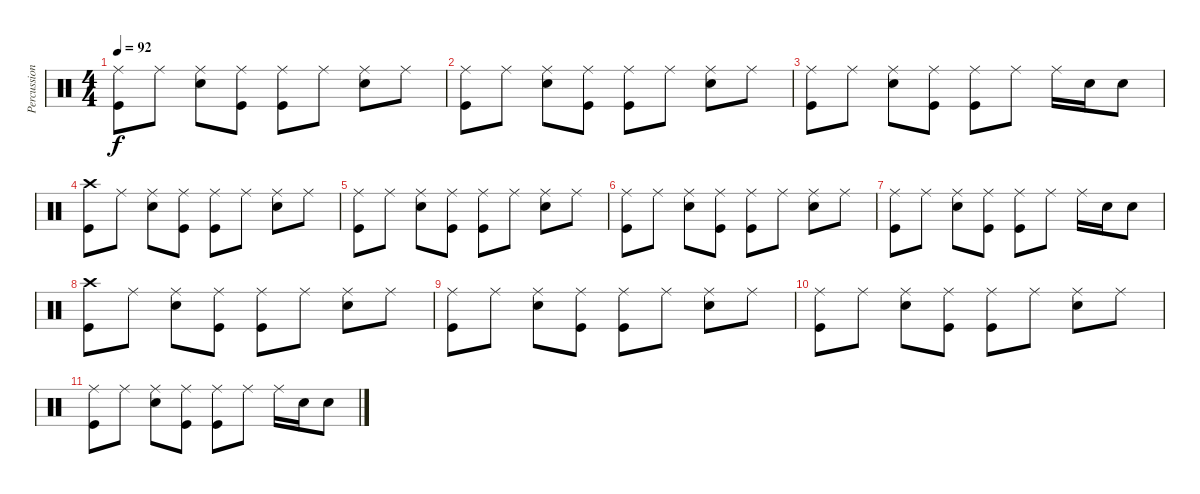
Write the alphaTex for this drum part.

\track ("Percussion" "Percussion") {instrument percussion}
\staff {score}
\articulation defaults
\ts (4 4)
\tempo 92
\clef neutral
\ks c
("Ride (middle)" "Kick (hit)").8{dy f} "Ride (middle)".8 ("Ride (middle)" "Snare (hit) 2").8 ("Ride (middle)" "Kick (hit)").8 ("Ride (middle)" "Kick (hit)").8 "Ride (middle)".8 ("Ride (middle)" "Snare (hit) 2").8 "Ride (middle)".8 |
("Ride (middle)" "Kick (hit)").8 "Ride (middle)".8 ("Ride (middle)" "Snare (hit) 2").8 ("Ride (middle)" "Kick (hit)").8 ("Ride (middle)" "Kick (hit)").8 "Ride (middle)".8 ("Ride (middle)" "Snare (hit) 2").8 "Ride (middle)".8 |
("Ride (middle)" "Kick (hit)").8 "Ride (middle)".8 ("Ride (middle)" "Snare (hit) 2").8 ("Ride (middle)" "Kick (hit)").8 ("Ride (middle)" "Kick (hit)").8 "Ride (middle)".8 "Ride (middle)".16 "Snare (hit) 2".16 "Snare (hit) 2".8 |
("Crash high (hit)" "Kick (hit)").8{volume 5} "Ride (middle)".8 ("Ride (middle)" "Snare (hit) 2").8 ("Ride (middle)" "Kick (hit)").8 ("Ride (middle)" "Kick (hit)").8 "Ride (middle)".8 ("Ride (middle)" "Snare (hit) 2").8 "Ride (middle)".8 |
("Ride (middle)" "Kick (hit)").8 "Ride (middle)".8 ("Ride (middle)" "Snare (hit) 2").8 ("Ride (middle)" "Kick (hit)").8 ("Ride (middle)" "Kick (hit)").8 "Ride (middle)".8 ("Ride (middle)" "Snare (hit) 2").8 "Ride (middle)".8 |
("Ride (middle)" "Kick (hit)").8 "Ride (middle)".8 ("Ride (middle)" "Snare (hit) 2").8 ("Ride (middle)" "Kick (hit)").8 ("Ride (middle)" "Kick (hit)").8 "Ride (middle)".8 ("Ride (middle)" "Snare (hit) 2").8 "Ride (middle)".8 |
("Ride (middle)" "Kick (hit)").8 "Ride (middle)".8 ("Ride (middle)" "Snare (hit) 2").8 ("Ride (middle)" "Kick (hit)").8 ("Ride (middle)" "Kick (hit)").8 "Ride (middle)".8 "Ride (middle)".16 "Snare (hit) 2".16 "Snare (hit) 2".8 |
("Crash high (hit)" "Kick (hit)").8{volume 1} "Ride (middle)".8 ("Ride (middle)" "Snare (hit) 2").8 ("Ride (middle)" "Kick (hit)").8 ("Ride (middle)" "Kick (hit)").8 "Ride (middle)".8 ("Ride (middle)" "Snare (hit) 2").8 "Ride (middle)".8 |
("Ride (middle)" "Kick (hit)").8 "Ride (middle)".8 ("Ride (middle)" "Snare (hit) 2").8 ("Ride (middle)" "Kick (hit)").8 ("Ride (middle)" "Kick (hit)").8 "Ride (middle)".8 ("Ride (middle)" "Snare (hit) 2").8 "Ride (middle)".8 |
("Ride (middle)" "Kick (hit)").8{volume 0} "Ride (middle)".8 ("Ride (middle)" "Snare (hit) 2").8 ("Ride (middle)" "Kick (hit)").8 ("Ride (middle)" "Kick (hit)").8 "Ride (middle)".8 ("Ride (middle)" "Snare (hit) 2").8 "Ride (middle)".8 |
("Ride (middle)" "Kick (hit)").8 "Ride (middle)".8 ("Ride (middle)" "Snare (hit) 2").8 ("Ride (middle)" "Kick (hit)").8 ("Ride (middle)" "Kick (hit)").8 "Ride (middle)".8 "Ride (middle)".16 "Snare (hit) 2".16 "Snare (hit) 2".8
